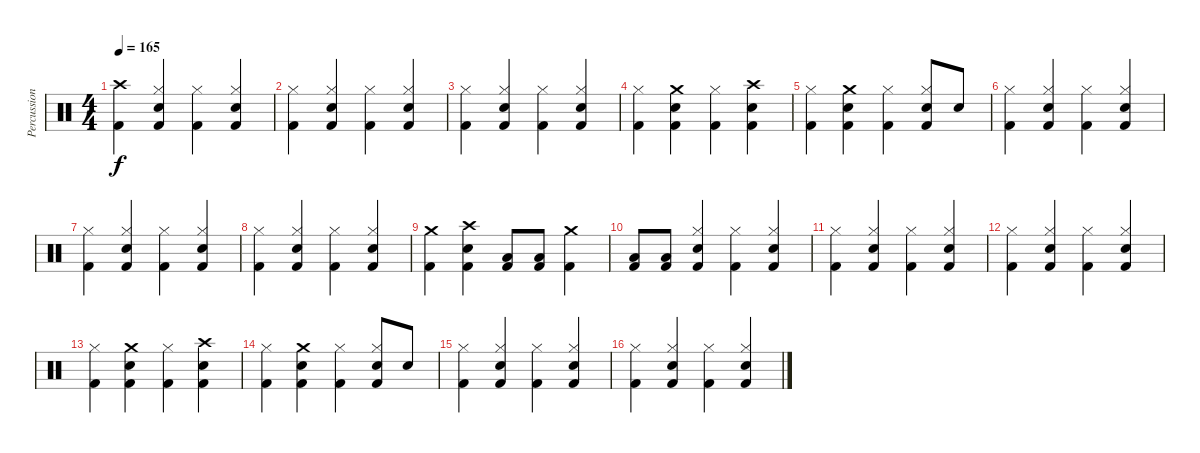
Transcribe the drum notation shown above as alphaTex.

\track ("Percussions" "Percussion") {instrument percussion}
\staff {score}
\articulation defaults
\ts (4 4)
\tempo 165
\clef neutral
\ks c
("Crash high (hit)" "Kick (hit) 2").4{dy f} ("Hi-Hat (closed)" "Electric Snare (hit)" "Kick (hit) 2").4 ("Hi-Hat (closed)" "Kick (hit) 2").4 ("Hi-Hat (closed)" "Electric Snare (hit)" "Kick (hit) 2").4 |
("Hi-Hat (closed)" "Kick (hit) 2").4 ("Hi-Hat (closed)" "Electric Snare (hit)" "Kick (hit) 2").4 ("Hi-Hat (closed)" "Kick (hit) 2").4 ("Hi-Hat (closed)" "Electric Snare (hit)" "Kick (hit) 2").4 |
("Hi-Hat (closed)" "Kick (hit) 2").4 ("Hi-Hat (closed)" "Electric Snare (hit)" "Kick (hit) 2").4 ("Hi-Hat (closed)" "Kick (hit) 2").4 ("Hi-Hat (closed)" "Electric Snare (hit)" "Kick (hit) 2").4 |
("Hi-Hat (closed)" "Kick (hit) 2").4 ("Crash medium (hit)" "Electric Snare (hit)" "Kick (hit) 2").4 ("Hi-Hat (closed)" "Kick (hit) 2").4 ("Crash high (hit)" "Electric Snare (hit)" "Kick (hit) 2").4 |
("Hi-Hat (closed)" "Kick (hit) 2").4 ("Crash medium (hit)" "Electric Snare (hit)" "Kick (hit) 2").4 ("Hi-Hat (closed)" "Kick (hit) 2").4 ("Hi-Hat (closed)" "Electric Snare (hit)" "Kick (hit) 2").8 "Electric Snare (hit)".8 |
("Hi-Hat (closed)" "Kick (hit) 2").4 ("Hi-Hat (closed)" "Electric Snare (hit)" "Kick (hit) 2").4 ("Hi-Hat (closed)" "Kick (hit) 2").4 ("Hi-Hat (closed)" "Electric Snare (hit)" "Kick (hit) 2").4 |
("Hi-Hat (closed)" "Kick (hit) 2").4 ("Hi-Hat (closed)" "Electric Snare (hit)" "Kick (hit) 2").4 ("Hi-Hat (closed)" "Kick (hit) 2").4 ("Hi-Hat (closed)" "Electric Snare (hit)" "Kick (hit) 2").4 |
("Hi-Hat (closed)" "Kick (hit) 2").4 ("Hi-Hat (closed)" "Electric Snare (hit)" "Kick (hit) 2").4 ("Hi-Hat (closed)" "Kick (hit) 2").4 ("Hi-Hat (closed)" "Electric Snare (hit)" "Kick (hit) 2").4 |
("Crash medium (hit)" "Kick (hit) 2").4 ("Crash high (hit)" "Electric Snare (hit)" "Kick (hit) 2").4 ("Low Floor Tom (hit)" "Kick (hit) 2").8 ("Low Floor Tom (hit)" "Kick (hit) 2").8 ("Crash medium (hit)" "Kick (hit) 2").4 |
("Low Floor Tom (hit)" "Kick (hit) 2").8 ("Low Floor Tom (hit)" "Kick (hit) 2").8 ("Hi-Hat (closed)" "Electric Snare (hit)" "Kick (hit) 2").4 ("Hi-Hat (closed)" "Kick (hit) 2").4 ("Hi-Hat (closed)" "Electric Snare (hit)" "Kick (hit) 2").4 |
("Hi-Hat (closed)" "Kick (hit) 2").4 ("Hi-Hat (closed)" "Electric Snare (hit)" "Kick (hit) 2").4 ("Hi-Hat (closed)" "Kick (hit) 2").4 ("Hi-Hat (closed)" "Electric Snare (hit)" "Kick (hit) 2").4 |
("Hi-Hat (closed)" "Kick (hit) 2").4 ("Hi-Hat (closed)" "Electric Snare (hit)" "Kick (hit) 2").4 ("Hi-Hat (closed)" "Kick (hit) 2").4 ("Hi-Hat (closed)" "Electric Snare (hit)" "Kick (hit) 2").4 |
("Hi-Hat (closed)" "Kick (hit) 2").4 ("Crash medium (hit)" "Electric Snare (hit)" "Kick (hit) 2").4 ("Hi-Hat (closed)" "Kick (hit) 2").4 ("Crash high (hit)" "Electric Snare (hit)" "Kick (hit) 2").4 |
("Hi-Hat (closed)" "Kick (hit) 2").4 ("Crash medium (hit)" "Electric Snare (hit)" "Kick (hit) 2").4 ("Hi-Hat (closed)" "Kick (hit) 2").4 ("Hi-Hat (closed)" "Electric Snare (hit)" "Kick (hit) 2").8 "Electric Snare (hit)".8 |
("Hi-Hat (closed)" "Kick (hit) 2").4 ("Hi-Hat (closed)" "Electric Snare (hit)" "Kick (hit) 2").4 ("Hi-Hat (closed)" "Kick (hit) 2").4 ("Hi-Hat (closed)" "Electric Snare (hit)" "Kick (hit) 2").4 |
("Hi-Hat (closed)" "Kick (hit) 2").4 ("Hi-Hat (closed)" "Electric Snare (hit)" "Kick (hit) 2").4 ("Hi-Hat (closed)" "Kick (hit) 2").4 ("Hi-Hat (closed)" "Electric Snare (hit)" "Kick (hit) 2").4
